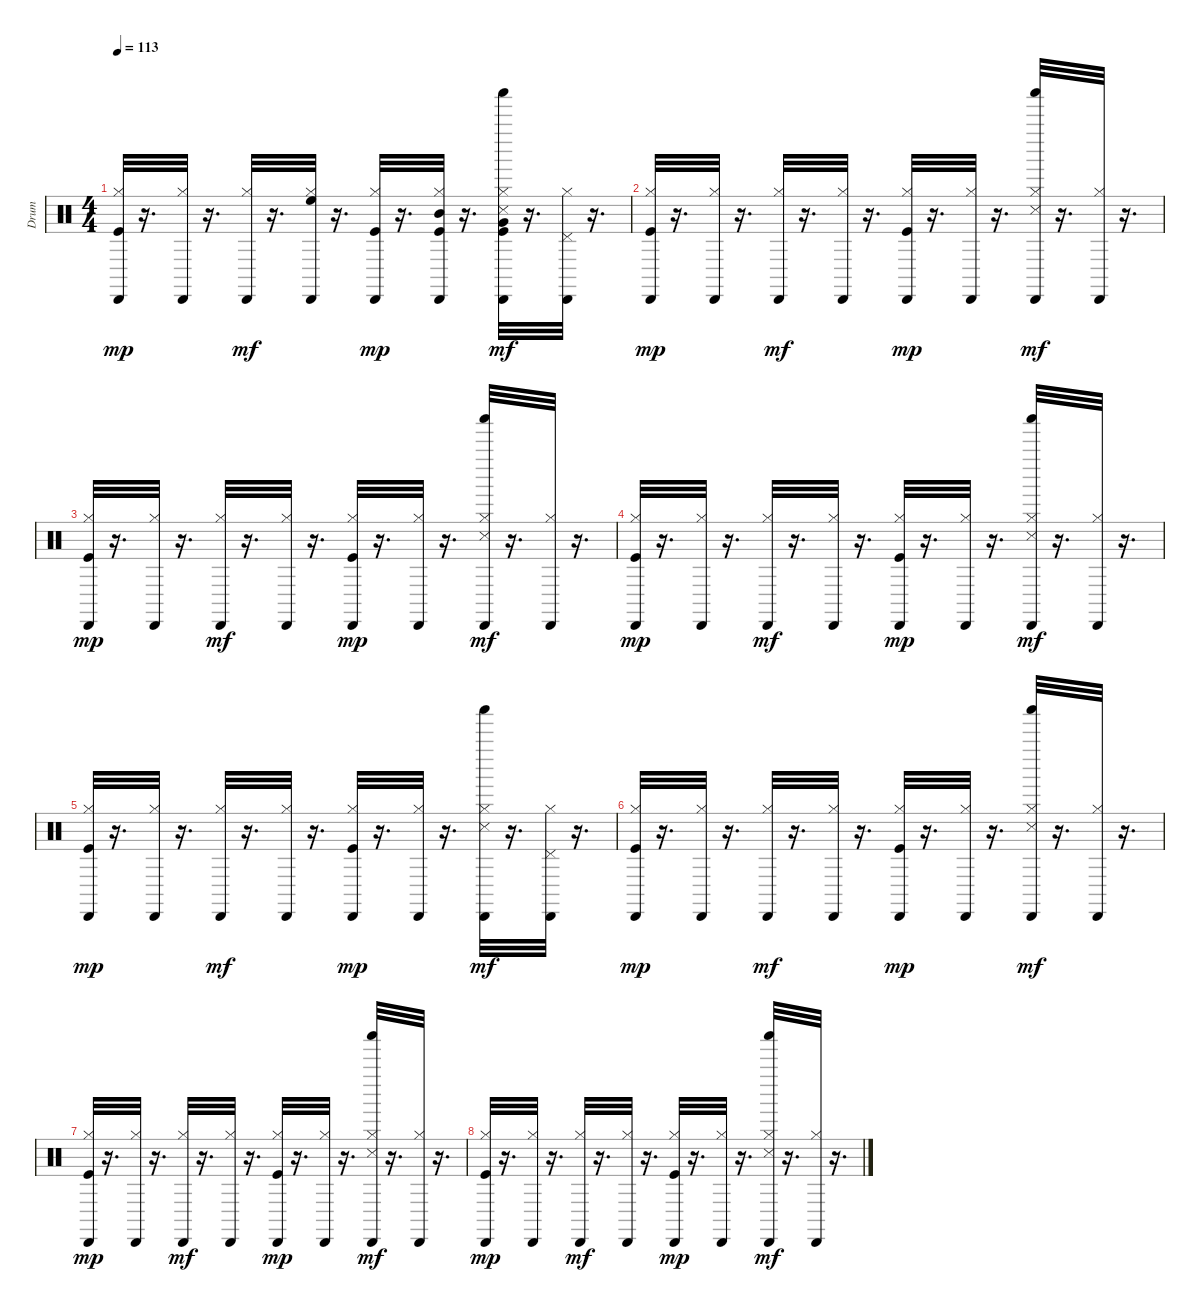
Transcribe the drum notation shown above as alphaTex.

\track ("Drum" "Drum") {instrument percussion}
\staff {score}
\articulation defaults
\ts (4 4)
\tempo 113
\clef neutral
\ks c
("Hi-Hat (closed)" "Kick (hit)" "Cabasa (hit)").32{dy mp} r.16{d} ("Hi-Hat (closed)" "Cabasa (hit)").32 r.16{d} ("Hi-Hat (closed)" "Cabasa (hit)").32{dy mf} r.16{d} ("Hi-Hat (closed)" "High Floor Tom (hit)" "Cabasa (hit)").32 r.16{d} ("Hi-Hat (closed)" "Kick (hit)" "Cabasa (hit)").32{dy mp} r.16{d} ("Hi-Hat (closed)" "Mid Tom (hit)" "Kick (hit)" "Cabasa (hit)").32 r.16{d} ("Hi-Hat (closed)" "Very Low Tom (hit)" "Shaker (hit)" "Snare (side stick) 3" "Kick (hit)" "Cabasa (hit)").32{dy mf} r.16{d} ("Hi-Hat (closed)" "Pedal Hi-Hat (hit)" "Cabasa (hit)").32 r.16{d} |
("Hi-Hat (closed)" "Kick (hit)" "Cabasa (hit)").32{dy mp} r.16{d} ("Hi-Hat (closed)" "Cabasa (hit)").32 r.16{d} ("Hi-Hat (closed)" "Cabasa (hit)").32{dy mf} r.16{d} ("Hi-Hat (closed)" "Cabasa (hit)").32 r.16{d} ("Hi-Hat (closed)" "Kick (hit)" "Cabasa (hit)").32{dy mp} r.16{d} ("Hi-Hat (closed)" "Cabasa (hit)").32 r.16{d} ("Hi-Hat (closed)" "Shaker (hit)" "Snare (side stick) 3" "Cabasa (hit)").32{dy mf} r.16{d} ("Hi-Hat (closed)" "Cabasa (hit)").32 r.16{d} |
("Hi-Hat (closed)" "Kick (hit)" "Cabasa (hit)").32{dy mp} r.16{d} ("Hi-Hat (closed)" "Cabasa (hit)").32 r.16{d} ("Hi-Hat (closed)" "Cabasa (hit)").32{dy mf} r.16{d} ("Hi-Hat (closed)" "Cabasa (hit)").32 r.16{d} ("Hi-Hat (closed)" "Kick (hit)" "Cabasa (hit)").32{dy mp} r.16{d} ("Hi-Hat (closed)" "Cabasa (hit)").32 r.16{d} ("Hi-Hat (closed)" "Shaker (hit)" "Snare (side stick) 3" "Cabasa (hit)").32{dy mf} r.16{d} ("Hi-Hat (closed)" "Cabasa (hit)").32 r.16{d} |
("Hi-Hat (closed)" "Kick (hit)" "Cabasa (hit)").32{dy mp} r.16{d} ("Hi-Hat (closed)" "Cabasa (hit)").32 r.16{d} ("Hi-Hat (closed)" "Cabasa (hit)").32{dy mf} r.16{d} ("Hi-Hat (closed)" "Cabasa (hit)").32 r.16{d} ("Hi-Hat (closed)" "Kick (hit)" "Cabasa (hit)").32{dy mp} r.16{d} ("Hi-Hat (closed)" "Cabasa (hit)").32 r.16{d} ("Hi-Hat (closed)" "Shaker (hit)" "Snare (side stick) 3" "Cabasa (hit)").32{dy mf} r.16{d} ("Hi-Hat (closed)" "Cabasa (hit)").32 r.16{d} |
("Hi-Hat (closed)" "Kick (hit)" "Cabasa (hit)").32{dy mp} r.16{d} ("Hi-Hat (closed)" "Cabasa (hit)").32 r.16{d} ("Hi-Hat (closed)" "Cabasa (hit)").32{dy mf} r.16{d} ("Hi-Hat (closed)" "Cabasa (hit)").32 r.16{d} ("Hi-Hat (closed)" "Kick (hit)" "Cabasa (hit)").32{dy mp} r.16{d} ("Hi-Hat (closed)" "Cabasa (hit)").32 r.16{d} ("Hi-Hat (closed)" "Shaker (hit)" "Snare (side stick) 3" "Cabasa (hit)").32{dy mf} r.16{d} ("Hi-Hat (closed)" "Pedal Hi-Hat (hit)" "Cabasa (hit)").32 r.16{d} |
("Hi-Hat (closed)" "Kick (hit)" "Cabasa (hit)").32{dy mp} r.16{d} ("Hi-Hat (closed)" "Cabasa (hit)").32 r.16{d} ("Hi-Hat (closed)" "Cabasa (hit)").32{dy mf} r.16{d} ("Hi-Hat (closed)" "Cabasa (hit)").32 r.16{d} ("Hi-Hat (closed)" "Kick (hit)" "Cabasa (hit)").32{dy mp} r.16{d} ("Hi-Hat (closed)" "Cabasa (hit)").32 r.16{d} ("Hi-Hat (closed)" "Shaker (hit)" "Snare (side stick) 3" "Cabasa (hit)").32{dy mf} r.16{d} ("Hi-Hat (closed)" "Cabasa (hit)").32 r.16{d} |
("Hi-Hat (closed)" "Kick (hit)" "Cabasa (hit)").32{dy mp} r.16{d} ("Hi-Hat (closed)" "Cabasa (hit)").32 r.16{d} ("Hi-Hat (closed)" "Cabasa (hit)").32{dy mf} r.16{d} ("Hi-Hat (closed)" "Cabasa (hit)").32 r.16{d} ("Hi-Hat (closed)" "Kick (hit)" "Cabasa (hit)").32{dy mp} r.16{d} ("Hi-Hat (closed)" "Cabasa (hit)").32 r.16{d} ("Hi-Hat (closed)" "Shaker (hit)" "Snare (side stick) 3" "Cabasa (hit)").32{dy mf} r.16{d} ("Hi-Hat (closed)" "Cabasa (hit)").32 r.16{d} |
("Hi-Hat (closed)" "Kick (hit)" "Cabasa (hit)").32{dy mp} r.16{d} ("Hi-Hat (closed)" "Cabasa (hit)").32 r.16{d} ("Hi-Hat (closed)" "Cabasa (hit)").32{dy mf} r.16{d} ("Hi-Hat (closed)" "Cabasa (hit)").32 r.16{d} ("Hi-Hat (closed)" "Kick (hit)" "Cabasa (hit)").32{dy mp} r.16{d} ("Hi-Hat (closed)" "Cabasa (hit)").32 r.16{d} ("Hi-Hat (closed)" "Shaker (hit)" "Snare (side stick) 3" "Cabasa (hit)").32{dy mf} r.16{d} ("Hi-Hat (closed)" "Cabasa (hit)").32 r.16{d}
